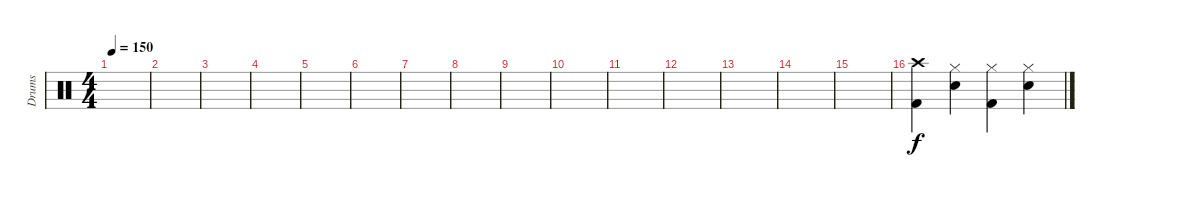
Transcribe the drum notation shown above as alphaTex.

\track ("Drums" "Drums") {instrument percussion}
\staff {score}
\articulation defaults
\ts (4 4)
\tempo 150
\clef neutral
\ks c
|
|
|
|
|
|
|
|
|
|
|
|
|
|
|
("Kick (hit) 2" "Crash high (hit)").4 ("Hi-Hat (closed)" "Electric Snare (hit)").4 ("Kick (hit) 2" "Hi-Hat (closed)").4 ("Hi-Hat (closed)" "Electric Snare (hit)").4
